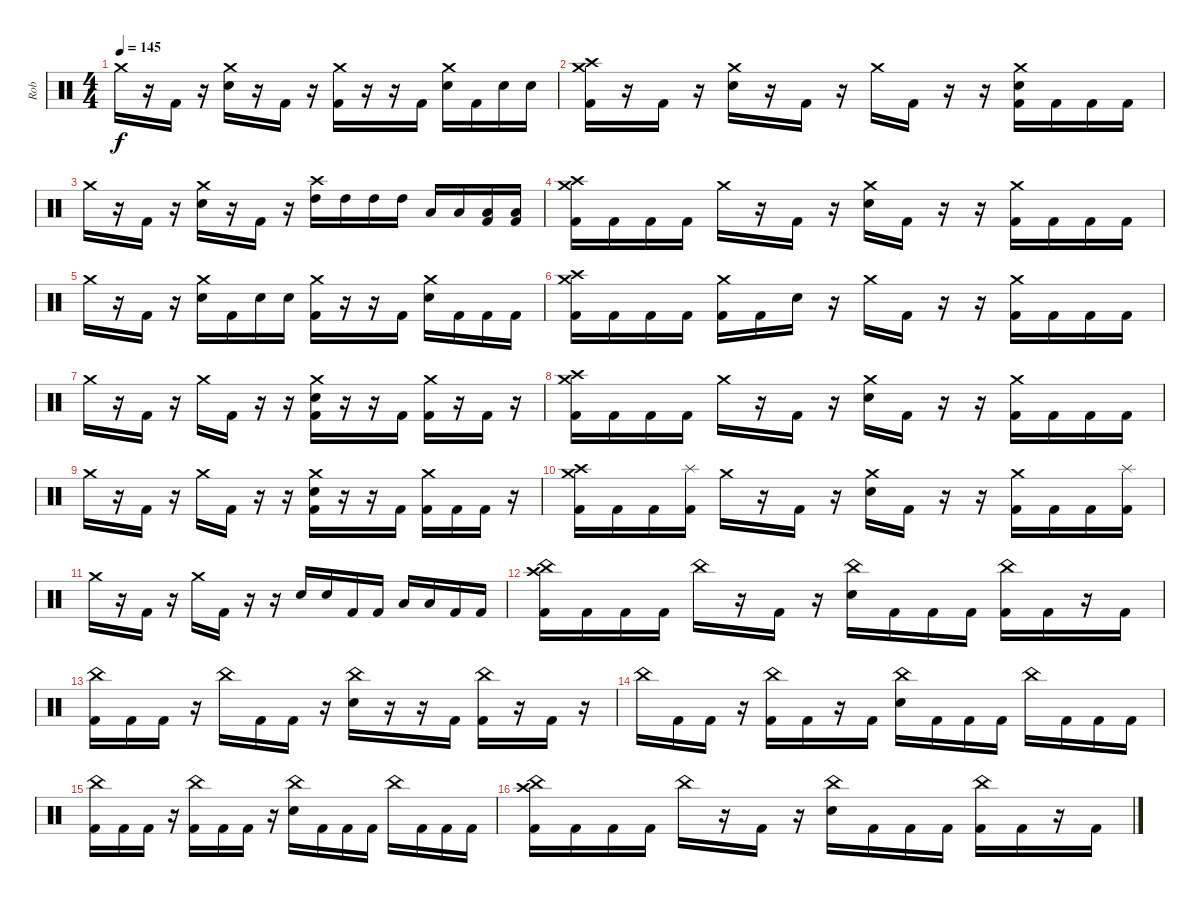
\track ("Rob" "Rob") {instrument percussion}
\staff {score}
\articulation defaults
\ts (4 4)
\tempo 145
\clef neutral
\ks c "Crash medium (hit)".16{dy f}
r.16 "Kick (hit) 2".16 r.16 ("Electric Snare (hit)" "Crash medium (hit)").16 r.16 "Kick (hit) 2".16 r.16 ("Kick (hit) 2" "Crash medium (hit)").16 r.16 r.16 "Kick (hit) 2".16 ("Electric Snare (hit)" "Crash medium (hit)").16 "Kick (hit) 2".16 "Electric Snare (hit)".16 "Electric Snare (hit)".16 |
("Crash high (hit)" "Kick (hit) 2" "Crash medium (hit)").16 r.16 "Kick (hit) 2".16 r.16 ("Electric Snare (hit)" "Crash medium (hit)").16 r.16 "Kick (hit) 2".16 r.16 "Crash medium (hit)".16 "Kick (hit) 2".16 r.16 r.16 ("Kick (hit) 2" "Electric Snare (hit)" "Crash medium (hit)").16 "Kick (hit) 2".16 "Kick (hit) 2".16 "Kick (hit) 2".16 |
"Crash medium (hit)".16 r.16 "Kick (hit) 2".16 r.16 ("Electric Snare (hit)" "Crash medium (hit)").16 r.16 "Kick (hit) 2".16 r.16 ("High Tom (hit)" "Crash high (hit)").16 "High Tom (hit)".16 "High Tom (hit)".16 "High Tom (hit)".16 "Low Tom (hit)".16 "Low Tom (hit)".16 ("Low Tom (hit)" "Kick (hit) 2").16 ("Low Tom (hit)" "Kick (hit) 2").16 |
("Crash high (hit)" "Kick (hit) 2" "Crash medium (hit)").16 "Kick (hit) 2".16 "Kick (hit) 2".16 "Kick (hit) 2".16 "Crash medium (hit)".16 r.16 "Kick (hit) 2".16 r.16 ("Electric Snare (hit)" "Crash medium (hit)").16 "Kick (hit) 2".16 r.16 r.16 ("Kick (hit) 2" "Crash medium (hit)").16 "Kick (hit) 2".16 "Kick (hit) 2".16 "Kick (hit) 2".16 |
"Crash medium (hit)".16 r.16 "Kick (hit) 2".16 r.16 ("Electric Snare (hit)" "Crash medium (hit)").16 "Kick (hit) 2".16 "Electric Snare (hit)".16 "Electric Snare (hit)".16 ("Kick (hit) 2" "Crash medium (hit)").16 r.16 r.16 "Kick (hit) 2".16 ("Electric Snare (hit)" "Crash medium (hit)").16 "Kick (hit) 2".16 "Kick (hit) 2".16 "Kick (hit) 2".16 |
("Crash high (hit)" "Kick (hit) 2" "Crash medium (hit)").16 "Kick (hit) 2".16 "Kick (hit) 2".16 "Kick (hit) 2".16 ("Kick (hit) 2" "Crash medium (hit)").16 "Kick (hit) 2".16 "Electric Snare (hit)".16 r.16 "Crash medium (hit)".16 "Kick (hit) 2".16 r.16 r.16 ("Kick (hit) 2" "Crash medium (hit)").16 "Kick (hit) 2".16 "Kick (hit) 2".16 "Kick (hit) 2".16 |
"Crash medium (hit)".16 r.16 "Kick (hit) 2".16 r.16 "Crash medium (hit)".16 "Kick (hit) 2".16 r.16 r.16 ("Electric Snare (hit)" "Kick (hit) 2" "Crash medium (hit)").16 r.16 r.16 "Kick (hit) 2".16 ("Kick (hit) 2" "Crash medium (hit)").16 r.16 "Kick (hit) 2".16 r.16 |
("Crash high (hit)" "Kick (hit) 2" "Crash medium (hit)").16 "Kick (hit) 2".16 "Kick (hit) 2".16 "Kick (hit) 2".16 "Crash medium (hit)".16 r.16 "Kick (hit) 2".16 r.16 ("Electric Snare (hit)" "Crash medium (hit)").16 "Kick (hit) 2".16 r.16 r.16 ("Kick (hit) 2" "Crash medium (hit)").16 "Kick (hit) 2".16 "Kick (hit) 2".16 "Kick (hit) 2".16 |
"Crash medium (hit)".16 r.16 "Kick (hit) 2".16 r.16 "Crash medium (hit)".16 "Kick (hit) 2".16 r.16 r.16 ("Electric Snare (hit)" "Kick (hit) 2" "Crash medium (hit)").16 r.16 r.16 "Kick (hit) 2".16 ("Kick (hit) 2" "Crash medium (hit)").16 "Kick (hit) 2".16 "Kick (hit) 2".16 r.16 |
("Crash high (hit)" "Kick (hit) 2" "Crash medium (hit)").16 "Kick (hit) 2".16 "Kick (hit) 2".16 ("Splash (hit)" "Kick (hit) 2").16 "Crash medium (hit)".16 r.16 "Kick (hit) 2".16 r.16 ("Electric Snare (hit)" "Crash medium (hit)").16 "Kick (hit) 2".16 r.16 r.16 ("Kick (hit) 2" "Crash medium (hit)").16 "Kick (hit) 2".16 "Kick (hit) 2".16 ("Splash (hit)" "Kick (hit) 2").16 |
"Crash medium (hit)".16 r.16 "Kick (hit) 2".16 r.16 "Crash medium (hit)".16 "Kick (hit) 2".16 r.16 r.16 "Electric Snare (hit)".16 "Electric Snare (hit)".16 "Kick (hit) 2".16 "Kick (hit) 2".16 "Low Tom (hit)".16 "Low Tom (hit)".16 "Kick (hit) 2".16 "Kick (hit) 2".16 |
("China (hit)" "Crash high (hit)" "Kick (hit) 2").16 "Kick (hit) 2".16 "Kick (hit) 2".16 "Kick (hit) 2".16 "China (hit)".16 r.16 "Kick (hit) 2".16 r.16 ("China (hit)" "Electric Snare (hit)").16 "Kick (hit) 2".16 "Kick (hit) 2".16 "Kick (hit) 2".16 ("China (hit)" "Kick (hit) 2").16 "Kick (hit) 2".16 r.16 "Kick (hit) 2".16 |
("China (hit)" "Kick (hit) 2").16 "Kick (hit) 2".16 "Kick (hit) 2".16 r.16 "China (hit)".16 "Kick (hit) 2".16 "Kick (hit) 2".16 r.16 ("China (hit)" "Electric Snare (hit)").16 r.16 r.16 "Kick (hit) 2".16 ("China (hit)" "Kick (hit) 2").16 r.16 "Kick (hit) 2".16 r.16 |
"China (hit)".16 "Kick (hit) 2".16 "Kick (hit) 2".16 r.16 ("China (hit)" "Kick (hit) 2").16 "Kick (hit) 2".16 r.16 "Kick (hit) 2".16 ("China (hit)" "Electric Snare (hit)").16 "Kick (hit) 2".16 "Kick (hit) 2".16 "Kick (hit) 2".16 "China (hit)".16 "Kick (hit) 2".16 "Kick (hit) 2".16 "Kick (hit) 2".16 |
("China (hit)" "Kick (hit) 2").16 "Kick (hit) 2".16 "Kick (hit) 2".16 r.16 ("China (hit)" "Kick (hit) 2").16 "Kick (hit) 2".16 "Kick (hit) 2".16 r.16 ("China (hit)" "Electric Snare (hit)").16 "Kick (hit) 2".16 "Kick (hit) 2".16 "Kick (hit) 2".16 "China (hit)".16 "Kick (hit) 2".16 "Kick (hit) 2".16 "Kick (hit) 2".16 |
("China (hit)" "Crash high (hit)" "Kick (hit) 2").16 "Kick (hit) 2".16 "Kick (hit) 2".16 "Kick (hit) 2".16 "China (hit)".16 r.16 "Kick (hit) 2".16 r.16 ("China (hit)" "Electric Snare (hit)").16 "Kick (hit) 2".16 "Kick (hit) 2".16 "Kick (hit) 2".16 ("China (hit)" "Kick (hit) 2").16 "Kick (hit) 2".16 r.16 "Kick (hit) 2".16
